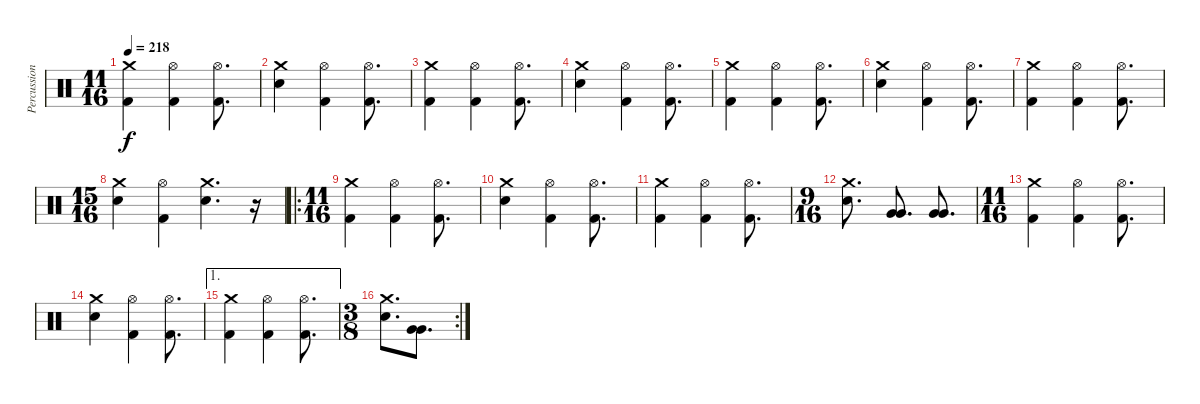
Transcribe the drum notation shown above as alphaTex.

\track ("Percussions" "Percussion") {instrument percussion}
\staff {score}
\articulation defaults
\ts (11 16)
\tempo 218
\clef neutral
\ks c
("Crash medium (hit)" "Kick (hit) 2").4{dy f} ("Hi-Hat (open)" "Kick (hit) 2").4 ("Hi-Hat (open)" "Kick (hit) 2").8{d} |
("Crash medium (hit)" "Electric Snare (hit)").4 ("Hi-Hat (open)" "Kick (hit) 2").4 ("Hi-Hat (open)" "Kick (hit) 2").8{d} |
("Crash medium (hit)" "Kick (hit) 2").4 ("Hi-Hat (open)" "Kick (hit) 2").4 ("Hi-Hat (open)" "Kick (hit) 2").8{d} |
("Crash medium (hit)" "Electric Snare (hit)").4 ("Hi-Hat (open)" "Kick (hit) 2").4 ("Hi-Hat (open)" "Kick (hit) 2").8{d} |
("Crash medium (hit)" "Kick (hit) 2").4 ("Hi-Hat (open)" "Kick (hit) 2").4 ("Hi-Hat (open)" "Kick (hit) 2").8{d} |
("Crash medium (hit)" "Electric Snare (hit)").4 ("Hi-Hat (open)" "Kick (hit) 2").4 ("Hi-Hat (open)" "Kick (hit) 2").8{d} |
("Crash medium (hit)" "Kick (hit) 2").4 ("Hi-Hat (open)" "Kick (hit) 2").4 ("Hi-Hat (open)" "Kick (hit) 2").8{d} |
\ts (15 16)
("Crash medium (hit)" "Electric Snare (hit)").4 ("Hi-Hat (open)" "Kick (hit) 2").4 ("Crash medium (hit)" "Electric Snare (hit)").4{d} r.16 |
\ro
\ts (11 16)
("Crash medium (hit)" "Kick (hit) 2").4 ("Hi-Hat (open)" "Kick (hit) 2").4 ("Hi-Hat (open)" "Kick (hit) 2").8{d} |
("Crash medium (hit)" "Electric Snare (hit)").4 ("Hi-Hat (open)" "Kick (hit) 2").4 ("Hi-Hat (open)" "Kick (hit) 2").8{d} |
("Crash medium (hit)" "Kick (hit) 2").4 ("Hi-Hat (open)" "Kick (hit) 2").4 ("Hi-Hat (open)" "Kick (hit) 2").8{d} |
\ts (9 16)
("Crash medium (hit)" "Electric Snare (hit)").8{d} ("Very Low Tom (hit)" "Very Low Tom (hit)").8{d} ("Very Low Tom (hit)" "Very Low Tom (hit)").8{d} |
\ts (11 16)
("Crash medium (hit)" "Kick (hit) 2").4 ("Hi-Hat (open)" "Kick (hit) 2").4 ("Hi-Hat (open)" "Kick (hit) 2").8{d} |
("Crash medium (hit)" "Electric Snare (hit)").4 ("Hi-Hat (open)" "Kick (hit) 2").4 ("Hi-Hat (open)" "Kick (hit) 2").8{d} |
\ae 1
("Crash medium (hit)" "Kick (hit) 2").4 ("Hi-Hat (open)" "Kick (hit) 2").4 ("Hi-Hat (open)" "Kick (hit) 2").8{d} |
\rc 2
\ts (3 8)
("Crash medium (hit)" "Electric Snare (hit)").8{d} ("Very Low Tom (hit)" "Very Low Tom (hit)").8{d}
